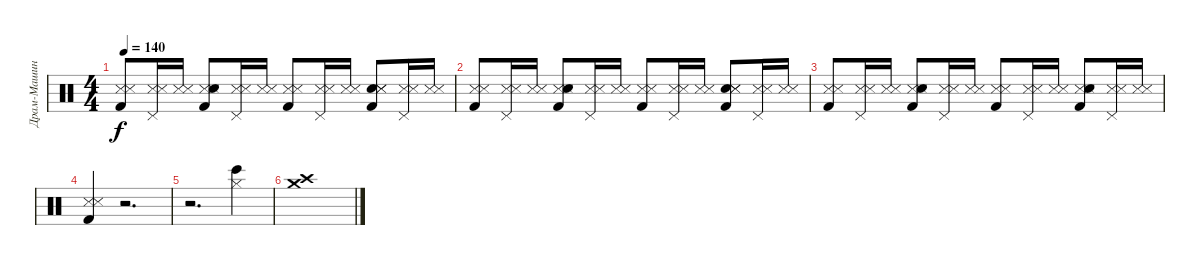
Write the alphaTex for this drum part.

\track ("Драм-Машина" "Драм-Машин") {instrument percussion}
\staff {score}
\articulation defaults
\ts (4 4)
\tempo 140
\clef neutral
\ks c
("Snare (side stick) 3" "Metronome (hit)" "Kick (hit) 2").8{dy f} ("Pedal Hi-Hat (hit)" "Snare (side stick) 3" "Metronome (hit)").16 ("Snare (side stick) 3" "Metronome (hit)").16 ("Snare (side stick) 3" "Snare (hit) 2" "Metronome (hit)" "Kick (hit) 2").8 ("Pedal Hi-Hat (hit)" "Snare (side stick) 3" "Metronome (hit)").16 ("Snare (side stick) 3" "Metronome (hit)").16 ("Snare (side stick) 3" "Metronome (hit)" "Kick (hit) 2").8 ("Snare (side stick) 3" "Pedal Hi-Hat (hit)" "Metronome (hit)").16 ("Snare (side stick) 3" "Metronome (hit)").16 ("Snare (hit) 2" "Snare (side stick) 3" "Metronome (hit)" "Kick (hit) 2").8 ("Pedal Hi-Hat (hit)" "Snare (side stick) 3" "Metronome (hit)").16 ("Snare (side stick) 3" "Metronome (hit)").16 |
("Snare (side stick) 3" "Metronome (hit)" "Kick (hit) 2").8 ("Pedal Hi-Hat (hit)" "Snare (side stick) 3" "Metronome (hit)").16 ("Snare (side stick) 3" "Metronome (hit)").16 ("Snare (side stick) 3" "Snare (hit) 2" "Metronome (hit)" "Kick (hit) 2").8 ("Pedal Hi-Hat (hit)" "Snare (side stick) 3" "Metronome (hit)").16 ("Snare (side stick) 3" "Metronome (hit)").16 ("Snare (side stick) 3" "Metronome (hit)" "Kick (hit) 2").8 ("Pedal Hi-Hat (hit)" "Snare (side stick) 3" "Metronome (hit)").16 ("Snare (side stick) 3" "Metronome (hit)").16 ("Snare (hit) 2" "Snare (side stick) 3" "Metronome (hit)" "Kick (hit) 2").8 ("Snare (side stick) 3" "Pedal Hi-Hat (hit)" "Metronome (hit)").16 ("Snare (side stick) 3" "Metronome (hit)").16 |
("Snare (side stick) 3" "Metronome (hit)" "Kick (hit) 2").8 ("Pedal Hi-Hat (hit)" "Snare (side stick) 3" "Metronome (hit)").16 ("Snare (side stick) 3" "Metronome (hit)").16 ("Snare (side stick) 3" "Snare (hit) 2" "Metronome (hit)" "Kick (hit) 2").8 ("Pedal Hi-Hat (hit)" "Snare (side stick) 3" "Metronome (hit)").16 ("Snare (side stick) 3" "Metronome (hit)").16 ("Snare (side stick) 3" "Metronome (hit)" "Kick (hit) 2").8 ("Pedal Hi-Hat (hit)" "Snare (side stick) 3" "Metronome (hit)").16 ("Snare (side stick) 3" "Metronome (hit)").16 ("Snare (side stick) 3" "Snare (hit) 2" "Metronome (hit)" "Kick (hit) 2").8 ("Snare (side stick) 3" "Pedal Hi-Hat (hit)" "Metronome (hit)").16 ("Snare (side stick) 3" "Metronome (hit)").16 |
("Snare (side stick) 3" "Metronome (hit)" "Kick (hit) 2").4 r.2{d} |
r.2{d} ("Hi-Hat (closed)" "Bongo High (hit)").4 |
("Crash medium (hit)" "Crash high (hit)").1
